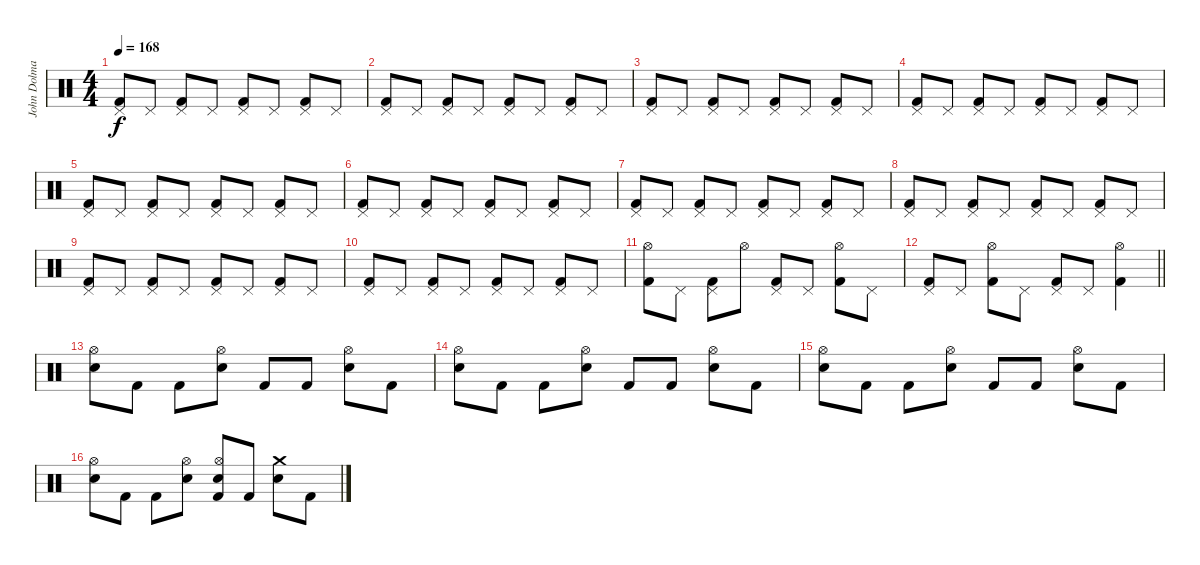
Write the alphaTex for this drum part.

\track ("John Dolmayan" "John Dolma") {instrument percussion}
\staff {score}
\articulation defaults
\ts (4 4)
\tempo 168
\clef neutral
\ks c
("Pedal Hi-Hat (hit)" "Kick (hit) 2").8{dy f} "Pedal Hi-Hat (hit)".8 ("Pedal Hi-Hat (hit)" "Kick (hit) 2").8 "Pedal Hi-Hat (hit)".8 ("Pedal Hi-Hat (hit)" "Kick (hit) 2").8 "Pedal Hi-Hat (hit)".8 ("Pedal Hi-Hat (hit)" "Kick (hit) 2").8 "Pedal Hi-Hat (hit)".8 |
("Pedal Hi-Hat (hit)" "Kick (hit) 2").8 "Pedal Hi-Hat (hit)".8 ("Pedal Hi-Hat (hit)" "Kick (hit) 2").8 "Pedal Hi-Hat (hit)".8 ("Pedal Hi-Hat (hit)" "Kick (hit) 2").8 "Pedal Hi-Hat (hit)".8 ("Pedal Hi-Hat (hit)" "Kick (hit) 2").8 "Pedal Hi-Hat (hit)".8 |
("Pedal Hi-Hat (hit)" "Kick (hit) 2").8 "Pedal Hi-Hat (hit)".8 ("Pedal Hi-Hat (hit)" "Kick (hit) 2").8 "Pedal Hi-Hat (hit)".8 ("Pedal Hi-Hat (hit)" "Kick (hit) 2").8 "Pedal Hi-Hat (hit)".8 ("Pedal Hi-Hat (hit)" "Kick (hit) 2").8 "Pedal Hi-Hat (hit)".8 |
("Pedal Hi-Hat (hit)" "Kick (hit) 2").8 "Pedal Hi-Hat (hit)".8 ("Pedal Hi-Hat (hit)" "Kick (hit) 2").8 "Pedal Hi-Hat (hit)".8 ("Pedal Hi-Hat (hit)" "Kick (hit) 2").8 "Pedal Hi-Hat (hit)".8 ("Pedal Hi-Hat (hit)" "Kick (hit) 2").8 "Pedal Hi-Hat (hit)".8 |
("Pedal Hi-Hat (hit)" "Kick (hit) 2").8 "Pedal Hi-Hat (hit)".8 ("Pedal Hi-Hat (hit)" "Kick (hit) 2").8 "Pedal Hi-Hat (hit)".8 ("Pedal Hi-Hat (hit)" "Kick (hit) 2").8 "Pedal Hi-Hat (hit)".8 ("Pedal Hi-Hat (hit)" "Kick (hit) 2").8 "Pedal Hi-Hat (hit)".8 |
("Pedal Hi-Hat (hit)" "Kick (hit) 2").8 "Pedal Hi-Hat (hit)".8 ("Pedal Hi-Hat (hit)" "Kick (hit) 2").8 "Pedal Hi-Hat (hit)".8 ("Pedal Hi-Hat (hit)" "Kick (hit) 2").8 "Pedal Hi-Hat (hit)".8 ("Pedal Hi-Hat (hit)" "Kick (hit) 2").8 "Pedal Hi-Hat (hit)".8 |
("Pedal Hi-Hat (hit)" "Kick (hit) 2").8 "Pedal Hi-Hat (hit)".8 ("Pedal Hi-Hat (hit)" "Kick (hit) 2").8 "Pedal Hi-Hat (hit)".8 ("Pedal Hi-Hat (hit)" "Kick (hit) 2").8 "Pedal Hi-Hat (hit)".8 ("Pedal Hi-Hat (hit)" "Kick (hit) 2").8 "Pedal Hi-Hat (hit)".8 |
("Pedal Hi-Hat (hit)" "Kick (hit) 2").8 "Pedal Hi-Hat (hit)".8 ("Pedal Hi-Hat (hit)" "Kick (hit) 2").8 "Pedal Hi-Hat (hit)".8 ("Pedal Hi-Hat (hit)" "Kick (hit) 2").8 "Pedal Hi-Hat (hit)".8 ("Pedal Hi-Hat (hit)" "Kick (hit) 2").8 "Pedal Hi-Hat (hit)".8 |
("Pedal Hi-Hat (hit)" "Kick (hit) 2").8 "Pedal Hi-Hat (hit)".8 ("Pedal Hi-Hat (hit)" "Kick (hit) 2").8 "Pedal Hi-Hat (hit)".8 ("Pedal Hi-Hat (hit)" "Kick (hit) 2").8 "Pedal Hi-Hat (hit)".8 ("Pedal Hi-Hat (hit)" "Kick (hit) 2").8 "Pedal Hi-Hat (hit)".8 |
("Pedal Hi-Hat (hit)" "Kick (hit) 2").8 "Pedal Hi-Hat (hit)".8 ("Pedal Hi-Hat (hit)" "Kick (hit) 2").8 "Pedal Hi-Hat (hit)".8 ("Pedal Hi-Hat (hit)" "Kick (hit) 2").8 "Pedal Hi-Hat (hit)".8 ("Pedal Hi-Hat (hit)" "Kick (hit) 2").8 "Pedal Hi-Hat (hit)".8 |
("Hi-Hat (open)" "Kick (hit) 2").8 "Pedal Hi-Hat (hit)".8 ("Pedal Hi-Hat (hit)" "Kick (hit) 2").8 "Hi-Hat (open)".8 ("Pedal Hi-Hat (hit)" "Kick (hit) 2").8 "Pedal Hi-Hat (hit)".8 ("Hi-Hat (open)" "Kick (hit) 2").8 "Pedal Hi-Hat (hit)".8 |
\barLineRight lightlight
("Pedal Hi-Hat (hit)" "Kick (hit) 2").8 "Pedal Hi-Hat (hit)".8 ("Hi-Hat (open)" "Kick (hit) 2").8 "Pedal Hi-Hat (hit)".8 ("Pedal Hi-Hat (hit)" "Kick (hit) 2").8 "Pedal Hi-Hat (hit)".8 ("Hi-Hat (open)" "Kick (hit) 2").4 |
("Hi-Hat (open)" "Electric Snare (hit)").8 "Kick (hit) 2".8 "Kick (hit) 2".8 ("Hi-Hat (open)" "Electric Snare (hit)").8 "Kick (hit) 2".8 "Kick (hit) 2".8 ("Hi-Hat (open)" "Electric Snare (hit)").8 "Kick (hit) 2".8 |
("Hi-Hat (open)" "Electric Snare (hit)").8 "Kick (hit) 2".8 "Kick (hit) 2".8 ("Hi-Hat (open)" "Electric Snare (hit)").8 "Kick (hit) 2".8 "Kick (hit) 2".8 ("Hi-Hat (open)" "Electric Snare (hit)").8 "Kick (hit) 2".8 |
("Hi-Hat (open)" "Electric Snare (hit)").8 "Kick (hit) 2".8 "Kick (hit) 2".8 ("Hi-Hat (open)" "Electric Snare (hit)").8 "Kick (hit) 2".8 "Kick (hit) 2".8 ("Hi-Hat (open)" "Electric Snare (hit)").8 "Kick (hit) 2".8 |
("Hi-Hat (open)" "Electric Snare (hit)").8 "Kick (hit) 2".8 "Kick (hit) 2".8 ("Hi-Hat (open)" "Electric Snare (hit)").8 ("Hi-Hat (open)" "Electric Snare (hit)" "Kick (hit) 2").8 "Kick (hit) 2".8 ("Crash medium (hit)" "Electric Snare (hit)").8 "Kick (hit) 2".8
